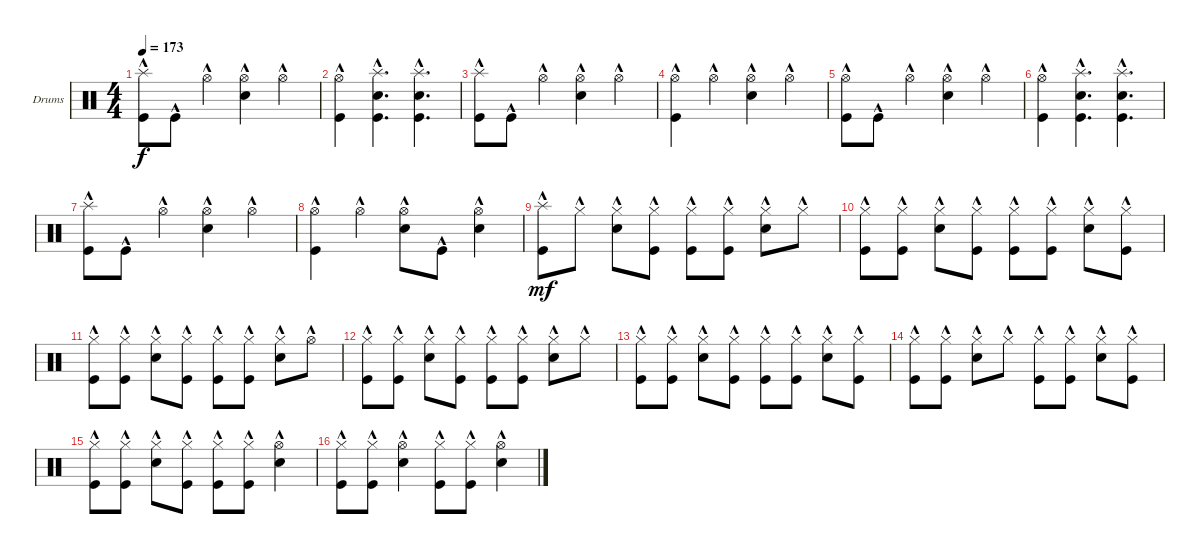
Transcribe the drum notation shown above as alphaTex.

\defaultSystemsLayout 4
\bracketExtendMode groupsimilarinstruments
\firstSystemTrackNameOrientation horizontal
\otherSystemsTrackNameOrientation horizontal
\track ("Drumkit" "Drums") {instrument percussion}
\staff {score}
\articulation defaults
\ts (4 4)
\tempo 173
\clef neutral
\ks c
("Splash (hit)"{hac} "Kick (hit)"{hac}).8{dy f} "Kick (hit)"{hac}.8 "Hi-Hat (open)"{hac}.4 ("Snare (hit) 2"{hac} "Hi-Hat (open)"{hac}).4 "Hi-Hat (open)"{hac}.4 |
("Kick (hit)"{hac} "Hi-Hat (open)"{hac}).4 ("Kick (hit)"{hac} "Splash (hit)"{hac} "Snare (hit) 2"{hac}).4{d} ("Kick (hit)"{hac} "Splash (hit)"{hac} "Snare (hit) 2"{hac}).4{d} |
("Splash (hit)"{hac} "Kick (hit)"{hac}).8 "Kick (hit)"{hac}.8 "Hi-Hat (open)"{hac}.4 ("Snare (hit) 2"{hac} "Hi-Hat (open)"{hac}).4 "Hi-Hat (open)"{hac}.4 |
("Kick (hit)"{hac} "Hi-Hat (open)"{hac}).4 "Hi-Hat (open)"{hac}.4 ("Snare (hit) 2"{hac} "Hi-Hat (open)"{hac}).4 "Hi-Hat (open)"{hac}.4 |
("Kick (hit)"{hac} "Hi-Hat (open)"{hac}).8 "Kick (hit)"{hac}.8 "Hi-Hat (open)"{hac}.4 ("Snare (hit) 2"{hac} "Hi-Hat (open)"{hac}).4 "Hi-Hat (open)"{hac}.4 |
("Kick (hit)"{hac} "Hi-Hat (open)"{hac}).4 ("Kick (hit)"{hac} "Splash (hit)"{hac} "Snare (hit) 2"{hac}).4{d} ("Kick (hit)"{hac} "Splash (hit)"{hac} "Snare (hit) 2"{hac}).4{d} |
("Splash (hit)"{hac} "Kick (hit)"{hac}).8 "Kick (hit)"{hac}.8 "Hi-Hat (open)"{hac}.4 ("Snare (hit) 2"{hac} "Hi-Hat (open)"{hac}).4 "Hi-Hat (open)"{hac}.4 |
("Kick (hit)"{hac} "Hi-Hat (open)"{hac}).4 "Hi-Hat (open)"{hac}.4 ("Snare (hit) 2"{hac} "Hi-Hat (open)"{hac}).8 "Kick (hit)"{hac}.8 ("Snare (hit) 2"{hac} "Hi-Hat (open)"{hac}).4 |
("Splash (hit)"{hac} "Kick (hit)"{hac}).8{dy mf} "Hi-Hat (closed)"{hac}.8 ("Hi-Hat (closed)"{hac} "Snare (hit) 2"{hac}).8 ("Hi-Hat (closed)"{hac} "Kick (hit)").8 ("Hi-Hat (closed)"{hac} "Kick (hit)"{hac}).8 ("Hi-Hat (closed)"{hac} "Kick (hit)").8 ("Hi-Hat (closed)"{hac} "Snare (hit) 2"{hac}).8 "Hi-Hat (closed)"{hac}.8 |
("Kick (hit)"{hac} "Hi-Hat (closed)"{hac}).8 ("Hi-Hat (closed)"{hac} "Kick (hit)").8 ("Hi-Hat (closed)"{hac} "Snare (hit) 2"{hac}).8 ("Hi-Hat (closed)"{hac} "Kick (hit)").8 ("Hi-Hat (closed)"{hac} "Kick (hit)"{hac}).8 ("Hi-Hat (closed)"{hac} "Kick (hit)").8 ("Hi-Hat (closed)"{hac} "Snare (hit) 2"{hac}).8 ("Hi-Hat (closed)"{hac} "Kick (hit)").8 |
("Kick (hit)"{hac} "Hi-Hat (closed)"{hac}).8 ("Hi-Hat (closed)"{hac} "Kick (hit)").8 ("Hi-Hat (closed)"{hac} "Snare (hit) 2"{hac}).8 ("Hi-Hat (closed)"{hac} "Kick (hit)").8 ("Hi-Hat (closed)"{hac} "Kick (hit)"{hac}).8 ("Hi-Hat (closed)"{hac} "Kick (hit)").8 ("Hi-Hat (closed)"{hac} "Snare (hit) 2"{hac}).8 "Hi-Hat (open)"{hac}.8 |
("Kick (hit)"{hac} "Hi-Hat (closed)"{hac}).8 ("Hi-Hat (closed)"{hac} "Kick (hit)").8 ("Hi-Hat (closed)"{hac} "Snare (hit) 2"{hac}).8 ("Hi-Hat (closed)"{hac} "Kick (hit)").8 ("Hi-Hat (closed)"{hac} "Kick (hit)"{hac}).8 ("Hi-Hat (closed)"{hac} "Kick (hit)").8 ("Hi-Hat (closed)"{hac} "Snare (hit) 2"{hac}).8 "Hi-Hat (closed)"{hac}.8 |
("Kick (hit)"{hac} "Hi-Hat (closed)"{hac}).8 ("Hi-Hat (closed)"{hac} "Kick (hit)").8 ("Hi-Hat (closed)"{hac} "Snare (hit) 2"{hac}).8 ("Hi-Hat (closed)"{hac} "Kick (hit)").8 ("Hi-Hat (closed)"{hac} "Kick (hit)"{hac}).8 ("Hi-Hat (closed)"{hac} "Kick (hit)").8 ("Hi-Hat (closed)"{hac} "Snare (hit) 2"{hac}).8 ("Hi-Hat (closed)"{hac} "Kick (hit)").8 |
("Kick (hit)"{hac} "Hi-Hat (closed)"{hac}).8 ("Hi-Hat (closed)"{hac} "Kick (hit)").8 ("Hi-Hat (closed)"{hac} "Snare (hit) 2"{hac}).8 "Hi-Hat (closed)"{hac}.8 ("Hi-Hat (closed)"{hac} "Kick (hit)"{hac}).8 ("Hi-Hat (closed)"{hac} "Kick (hit)").8 ("Hi-Hat (closed)"{hac} "Snare (hit) 2"{hac}).8 ("Hi-Hat (closed)"{hac} "Kick (hit)").8 |
("Kick (hit)"{hac} "Hi-Hat (closed)"{hac}).8 ("Hi-Hat (closed)"{hac} "Kick (hit)").8 ("Hi-Hat (closed)"{hac} "Snare (hit) 2"{hac}).8 ("Hi-Hat (closed)"{hac} "Kick (hit)").8 ("Hi-Hat (closed)"{hac} "Kick (hit)"{hac}).8 ("Hi-Hat (closed)"{hac} "Kick (hit)").8 ("Hi-Hat (open)"{hac} "Snare (hit) 2"{hac}).4 |
("Kick (hit)"{hac} "Hi-Hat (closed)"{hac}).8 ("Hi-Hat (closed)"{hac} "Kick (hit)"{hac}).8 ("Hi-Hat (open)"{hac} "Snare (hit) 2"{hac}).4 ("Hi-Hat (closed)"{hac} "Kick (hit)"{hac}).8 ("Hi-Hat (closed)"{hac} "Kick (hit)"{hac}).8 ("Hi-Hat (open)"{hac} "Snare (hit) 2"{hac}).4
